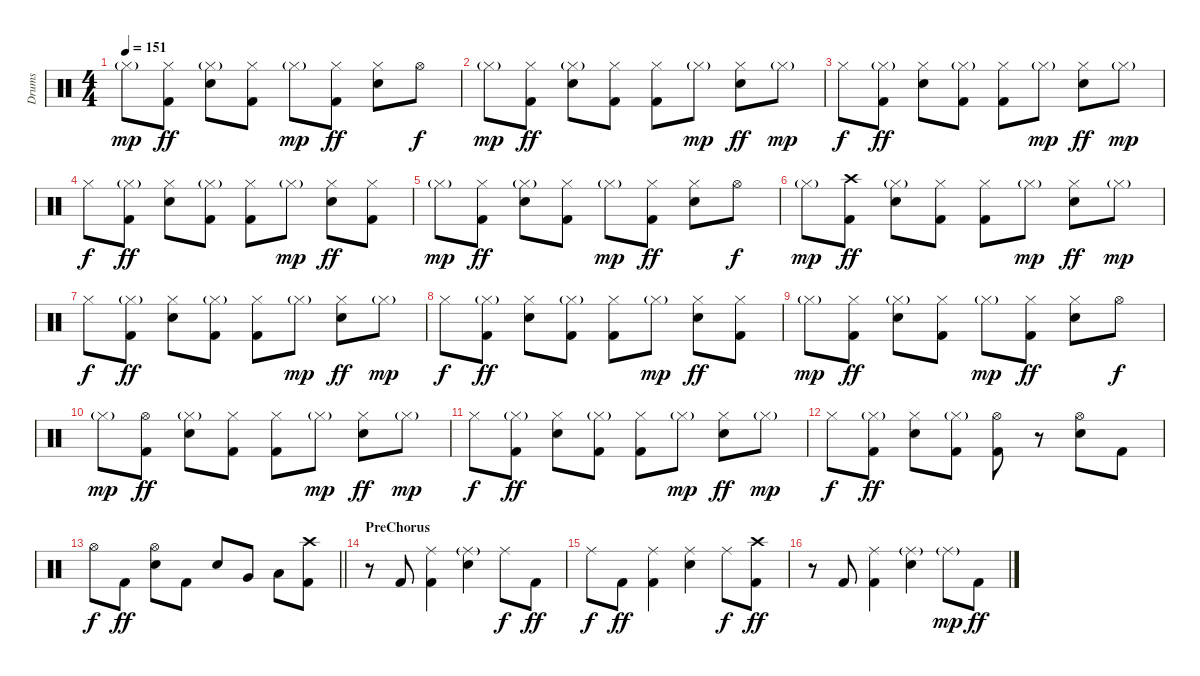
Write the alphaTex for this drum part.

\track ("Drums" "Drums") {instrument percussion}
\staff {score}
\articulation defaults
\ts (4 4)
\tempo 151
\clef neutral
\ks c "Hi-Hat (closed)"{g}.8{dy mp}
("Hi-Hat (closed)" "Kick (hit) 2").8{dy ff} ("Hi-Hat (closed)"{g} "Electric Snare (hit)").8 ("Hi-Hat (closed)" "Kick (hit) 2").8 "Hi-Hat (closed)"{g}.8{dy mp} ("Hi-Hat (closed)" "Kick (hit) 2").8{dy ff} ("Hi-Hat (closed)" "Electric Snare (hit)").8 "Hi-Hat (open)".8{dy f} |
"Hi-Hat (closed)"{g}.8{dy mp} ("Hi-Hat (closed)" "Kick (hit) 2").8{dy ff} ("Hi-Hat (closed)"{g} "Electric Snare (hit)").8 ("Hi-Hat (closed)" "Kick (hit) 2").8 ("Hi-Hat (closed)" "Kick (hit) 2").8 "Hi-Hat (closed)"{g}.8{dy mp} ("Hi-Hat (closed)" "Electric Snare (hit)").8{dy ff} "Hi-Hat (closed)"{g}.8{dy mp} |
"Hi-Hat (closed)".8{dy f} ("Hi-Hat (closed)"{g} "Kick (hit) 2").8{dy ff} ("Hi-Hat (closed)" "Electric Snare (hit)").8 ("Hi-Hat (closed)"{g} "Kick (hit) 2").8 ("Hi-Hat (closed)" "Kick (hit) 2").8 "Hi-Hat (closed)"{g}.8{dy mp} ("Hi-Hat (closed)" "Electric Snare (hit)").8{dy ff} "Hi-Hat (closed)"{g}.8{dy mp} |
"Hi-Hat (closed)".8{dy f} ("Hi-Hat (closed)"{g} "Kick (hit) 2").8{dy ff} ("Hi-Hat (closed)" "Electric Snare (hit)").8 ("Hi-Hat (closed)"{g} "Kick (hit) 2").8 ("Hi-Hat (closed)" "Kick (hit) 2").8 "Hi-Hat (closed)"{g}.8{dy mp} ("Hi-Hat (closed)" "Electric Snare (hit)").8{dy ff} ("Hi-Hat (closed)" "Kick (hit) 2").8 |
"Hi-Hat (closed)"{g}.8{dy mp} ("Hi-Hat (closed)" "Kick (hit) 2").8{dy ff} ("Hi-Hat (closed)"{g} "Electric Snare (hit)").8 ("Hi-Hat (closed)" "Kick (hit) 2").8 "Hi-Hat (closed)"{g}.8{dy mp} ("Hi-Hat (closed)" "Kick (hit) 2").8{dy ff} ("Hi-Hat (closed)" "Electric Snare (hit)").8 "Hi-Hat (open)".8{dy f} |
"Hi-Hat (closed)"{g}.8{dy mp} ("Crash high (hit)" "Kick (hit) 2").8{dy ff} ("Hi-Hat (closed)"{g} "Electric Snare (hit)").8 ("Hi-Hat (closed)" "Kick (hit) 2").8 ("Hi-Hat (closed)" "Kick (hit) 2").8 "Hi-Hat (closed)"{g}.8{dy mp} ("Hi-Hat (closed)" "Electric Snare (hit)").8{dy ff} "Hi-Hat (closed)"{g}.8{dy mp} |
"Hi-Hat (closed)".8{dy f} ("Hi-Hat (closed)"{g} "Kick (hit) 2").8{dy ff} ("Hi-Hat (closed)" "Electric Snare (hit)").8 ("Hi-Hat (closed)"{g} "Kick (hit) 2").8 ("Hi-Hat (closed)" "Kick (hit) 2").8 "Hi-Hat (closed)"{g}.8{dy mp} ("Hi-Hat (closed)" "Electric Snare (hit)").8{dy ff} "Hi-Hat (closed)"{g}.8{dy mp} |
"Hi-Hat (closed)".8{dy f} ("Hi-Hat (closed)"{g} "Kick (hit) 2").8{dy ff} ("Hi-Hat (closed)" "Electric Snare (hit)").8 ("Hi-Hat (closed)"{g} "Kick (hit) 2").8 ("Hi-Hat (closed)" "Kick (hit) 2").8 "Hi-Hat (closed)"{g}.8{dy mp} ("Hi-Hat (closed)" "Electric Snare (hit)").8{dy ff} ("Hi-Hat (closed)" "Kick (hit) 2").8 |
"Hi-Hat (closed)"{g}.8{dy mp} ("Hi-Hat (closed)" "Kick (hit) 2").8{dy ff} ("Hi-Hat (closed)"{g} "Electric Snare (hit)").8 ("Hi-Hat (closed)" "Kick (hit) 2").8 "Hi-Hat (closed)"{g}.8{dy mp} ("Hi-Hat (closed)" "Kick (hit) 2").8{dy ff} ("Hi-Hat (closed)" "Electric Snare (hit)").8 "Hi-Hat (open)".8{dy f} |
"Hi-Hat (closed)"{g}.8{dy mp} ("Hi-Hat (open)" "Kick (hit) 2").8{dy ff} ("Hi-Hat (closed)"{g} "Electric Snare (hit)").8 ("Hi-Hat (closed)" "Kick (hit) 2").8 ("Hi-Hat (closed)" "Kick (hit) 2").8 "Hi-Hat (closed)"{g}.8{dy mp} ("Hi-Hat (closed)" "Electric Snare (hit)").8{dy ff} "Hi-Hat (closed)"{g}.8{dy mp} |
"Hi-Hat (closed)".8{dy f} ("Hi-Hat (closed)"{g} "Kick (hit) 2").8{dy ff} ("Hi-Hat (closed)" "Electric Snare (hit)").8 ("Hi-Hat (closed)"{g} "Kick (hit) 2").8 ("Hi-Hat (closed)" "Kick (hit) 2").8 "Hi-Hat (closed)"{g}.8{dy mp} ("Hi-Hat (closed)" "Electric Snare (hit)").8{dy ff} "Hi-Hat (closed)"{g}.8{dy mp} |
"Hi-Hat (closed)".8{dy f} ("Hi-Hat (closed)"{g} "Kick (hit) 2").8{dy ff} ("Hi-Hat (closed)" "Electric Snare (hit)").8 ("Hi-Hat (closed)"{g} "Kick (hit) 2").8 ("Hi-Hat (open)" "Kick (hit) 2").8 r.8 ("Hi-Hat (open)" "Electric Snare (hit)").8 "Kick (hit) 2".8 |
\barLineRight lightlight "Hi-Hat (open)".8{dy f} "Kick (hit) 2".8{dy ff}
("Hi-Hat (open)" "Electric Snare (hit)").8 "Kick (hit) 2".8 "Electric Snare (hit)".8 "Very Low Tom (hit)".8 "Low Floor Tom (hit)".8 ("Crash high (hit)" "Kick (hit) 2").8 |
\section ("" "PreChorus")
r.8 "Kick (hit) 2".8 ("Ride (middle)" "Kick (hit) 2").4 ("Ride (middle)"{g} "Electric Snare (hit)").4 "Ride (middle)".8{dy f} "Kick (hit) 2".8{dy ff} |
"Ride (middle)".8{dy f} "Kick (hit) 2".8{dy ff} ("Ride (middle)" "Kick (hit) 2").4 ("Ride (middle)" "Electric Snare (hit)").4 "Ride (middle)".8{dy f} ("Crash high (hit)" "Kick (hit) 2").8{dy ff} |
r.8 "Kick (hit) 2".8 ("Ride (middle)" "Kick (hit) 2").4 ("Ride (middle)"{g} "Electric Snare (hit)").4 "Ride (middle)"{g}.8{dy mp} "Kick (hit) 2".8{dy ff}
